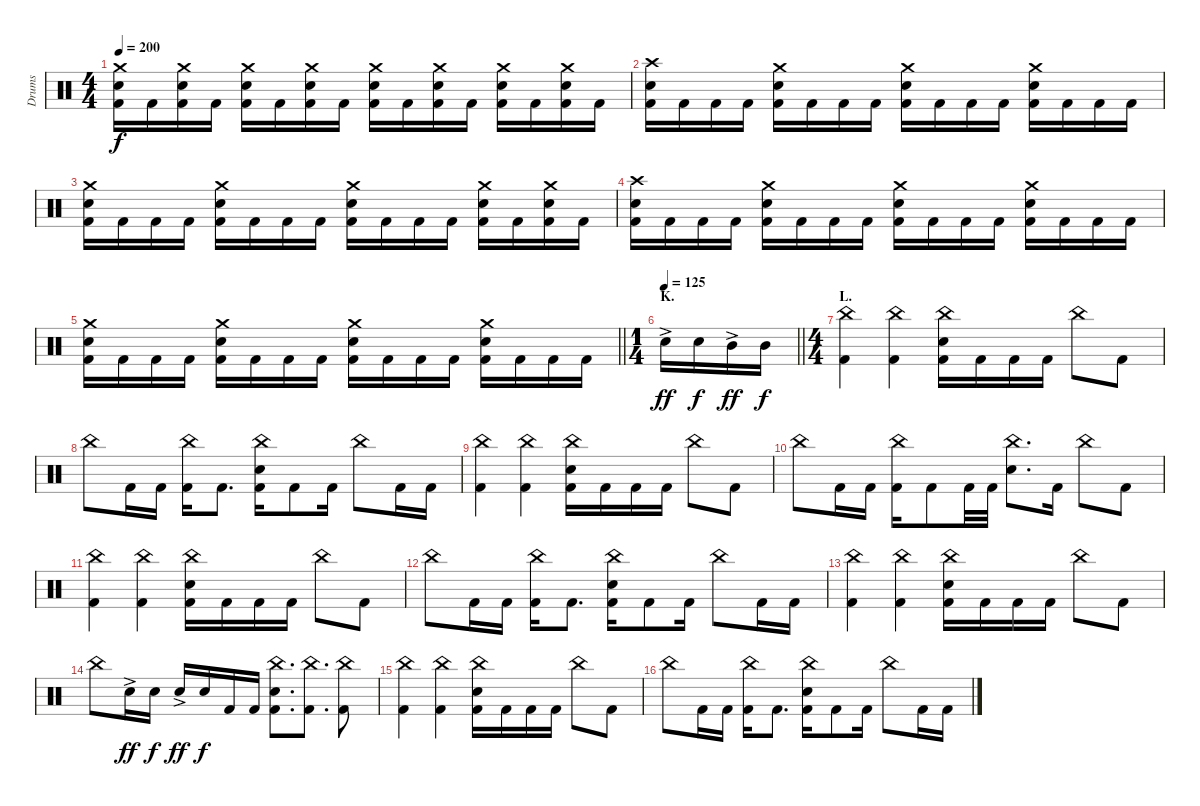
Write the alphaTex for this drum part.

\track ("Drums" "Drums") {instrument percussion}
\staff {score}
\articulation defaults
\ts (4 4)
\tempo 200
\clef neutral
\ks c
("Crash medium (hit)" "Electric Snare (hit)" "Kick (hit) 2").16{dy f} "Kick (hit) 2".16 ("Crash medium (hit)" "Electric Snare (hit)" "Kick (hit) 2").16 "Kick (hit) 2".16 ("Crash medium (hit)" "Electric Snare (hit)" "Kick (hit) 2").16 "Kick (hit) 2".16 ("Crash medium (hit)" "Electric Snare (hit)" "Kick (hit) 2").16 "Kick (hit) 2".16 ("Crash medium (hit)" "Electric Snare (hit)" "Kick (hit) 2").16 "Kick (hit) 2".16 ("Crash medium (hit)" "Electric Snare (hit)" "Kick (hit) 2").16 "Kick (hit) 2".16 ("Crash medium (hit)" "Electric Snare (hit)" "Kick (hit) 2").16 "Kick (hit) 2".16 ("Crash medium (hit)" "Electric Snare (hit)" "Kick (hit) 2").16 "Kick (hit) 2".16 |
("Crash high (hit)" "Electric Snare (hit)" "Kick (hit) 2").16 "Kick (hit) 2".16 "Kick (hit) 2".16 "Kick (hit) 2".16 ("Crash medium (hit)" "Electric Snare (hit)" "Kick (hit) 2").16 "Kick (hit) 2".16 "Kick (hit) 2".16 "Kick (hit) 2".16 ("Crash medium (hit)" "Electric Snare (hit)" "Kick (hit) 2").16 "Kick (hit) 2".16 "Kick (hit) 2".16 "Kick (hit) 2".16 ("Crash medium (hit)" "Electric Snare (hit)" "Kick (hit) 2").16 "Kick (hit) 2".16 "Kick (hit) 2".16 "Kick (hit) 2".16 |
("Crash medium (hit)" "Electric Snare (hit)" "Kick (hit) 2").16 "Kick (hit) 2".16 "Kick (hit) 2".16 "Kick (hit) 2".16 ("Crash medium (hit)" "Electric Snare (hit)" "Kick (hit) 2").16 "Kick (hit) 2".16 "Kick (hit) 2".16 "Kick (hit) 2".16 ("Crash medium (hit)" "Electric Snare (hit)" "Kick (hit) 2").16 "Kick (hit) 2".16 "Kick (hit) 2".16 "Kick (hit) 2".16 ("Crash medium (hit)" "Electric Snare (hit)" "Kick (hit) 2").16 "Kick (hit) 2".16 ("Crash medium (hit)" "Electric Snare (hit)" "Kick (hit) 2").16 "Kick (hit) 2".16 |
("Crash high (hit)" "Electric Snare (hit)" "Kick (hit) 2").16 "Kick (hit) 2".16 "Kick (hit) 2".16 "Kick (hit) 2".16 ("Crash medium (hit)" "Electric Snare (hit)" "Kick (hit) 2").16 "Kick (hit) 2".16 "Kick (hit) 2".16 "Kick (hit) 2".16 ("Crash medium (hit)" "Electric Snare (hit)" "Kick (hit) 2").16 "Kick (hit) 2".16 "Kick (hit) 2".16 "Kick (hit) 2".16 ("Crash medium (hit)" "Electric Snare (hit)" "Kick (hit) 2").16 "Kick (hit) 2".16 "Kick (hit) 2".16 "Kick (hit) 2".16 |
\barLineRight lightlight
("Crash medium (hit)" "Electric Snare (hit)" "Kick (hit) 2").16 "Kick (hit) 2".16 "Kick (hit) 2".16 "Kick (hit) 2".16 ("Crash medium (hit)" "Electric Snare (hit)" "Kick (hit) 2").16 "Kick (hit) 2".16 "Kick (hit) 2".16 "Kick (hit) 2".16 ("Crash medium (hit)" "Electric Snare (hit)" "Kick (hit) 2").16 "Kick (hit) 2".16 "Kick (hit) 2".16 "Kick (hit) 2".16 ("Crash medium (hit)" "Electric Snare (hit)" "Kick (hit) 2").16 "Kick (hit) 2".16 "Kick (hit) 2".16 "Kick (hit) 2".16 |
\ts (1 4)
\section ("" "K.")
\tempo 125
\barLineRight lightlight "Electric Snare (hit)"{ac}.16{dy ff} "Electric Snare (hit)".16{dy f} "Mid Tom (hit)"{ac}.16{dy ff} "Mid Tom (hit)".16{dy f}
|
\ts (4 4)
\section ("" "L.")
("China (hit)" "Kick (hit) 2").4 ("China (hit)" "Kick (hit) 2").4 ("China (hit)" "Electric Snare (hit)" "Kick (hit) 2").16 "Kick (hit) 2".16 "Kick (hit) 2".16 "Kick (hit) 2".16 "China (hit)".8 "Kick (hit) 2".8 |
"China (hit)".8 "Kick (hit) 2".16 "Kick (hit) 2".16 ("China (hit)" "Kick (hit) 2").16 "Kick (hit) 2".8{d} ("China (hit)" "Electric Snare (hit)" "Kick (hit) 2").16 "Kick (hit) 2".8 "Kick (hit) 2".16 "China (hit)".8 "Kick (hit) 2".16 "Kick (hit) 2".16 |
("China (hit)" "Kick (hit) 2").4 ("China (hit)" "Kick (hit) 2").4 ("China (hit)" "Electric Snare (hit)" "Kick (hit) 2").16 "Kick (hit) 2".16 "Kick (hit) 2".16 "Kick (hit) 2".16 "China (hit)".8 "Kick (hit) 2".8 |
"China (hit)".8 "Kick (hit) 2".16 "Kick (hit) 2".16 ("China (hit)" "Kick (hit) 2").16 "Kick (hit) 2".8 "Kick (hit) 2".32 "Kick (hit) 2".32 ("China (hit)" "Electric Snare (hit)").8{d} "Kick (hit) 2".16 "China (hit)".8 "Kick (hit) 2".8 |
("China (hit)" "Kick (hit) 2").4 ("China (hit)" "Kick (hit) 2").4 ("China (hit)" "Electric Snare (hit)" "Kick (hit) 2").16 "Kick (hit) 2".16 "Kick (hit) 2".16 "Kick (hit) 2".16 "China (hit)".8 "Kick (hit) 2".8 |
"China (hit)".8 "Kick (hit) 2".16 "Kick (hit) 2".16 ("China (hit)" "Kick (hit) 2").16 "Kick (hit) 2".8{d} ("China (hit)" "Electric Snare (hit)" "Kick (hit) 2").16 "Kick (hit) 2".8 "Kick (hit) 2".16 "China (hit)".8 "Kick (hit) 2".16 "Kick (hit) 2".16 |
("China (hit)" "Kick (hit) 2").4 ("China (hit)" "Kick (hit) 2").4 ("China (hit)" "Electric Snare (hit)" "Kick (hit) 2").16 "Kick (hit) 2".16 "Kick (hit) 2".16 "Kick (hit) 2".16 "China (hit)".8 "Kick (hit) 2".8 |
"China (hit)".8 "Electric Snare (hit)"{ac}.16{dy ff} "Electric Snare (hit)".16{dy f} "Electric Snare (hit)"{ac}.16{dy ff} "Electric Snare (hit)".16{dy f} "Kick (hit) 2".16 "Kick (hit) 2".16 ("China (hit)" "Electric Snare (hit)" "Kick (hit) 2").8{d} ("China (hit)" "Kick (hit) 2").8{d} ("China (hit)" "Kick (hit) 2").8 |
("China (hit)" "Kick (hit) 2").4 ("China (hit)" "Kick (hit) 2").4 ("China (hit)" "Electric Snare (hit)" "Kick (hit) 2").16 "Kick (hit) 2".16 "Kick (hit) 2".16 "Kick (hit) 2".16 "China (hit)".8 "Kick (hit) 2".8 |
"China (hit)".8 "Kick (hit) 2".16 "Kick (hit) 2".16 ("China (hit)" "Kick (hit) 2").16 "Kick (hit) 2".8{d} ("China (hit)" "Electric Snare (hit)" "Kick (hit) 2").16 "Kick (hit) 2".8 "Kick (hit) 2".16 "China (hit)".8 "Kick (hit) 2".16 "Kick (hit) 2".16
